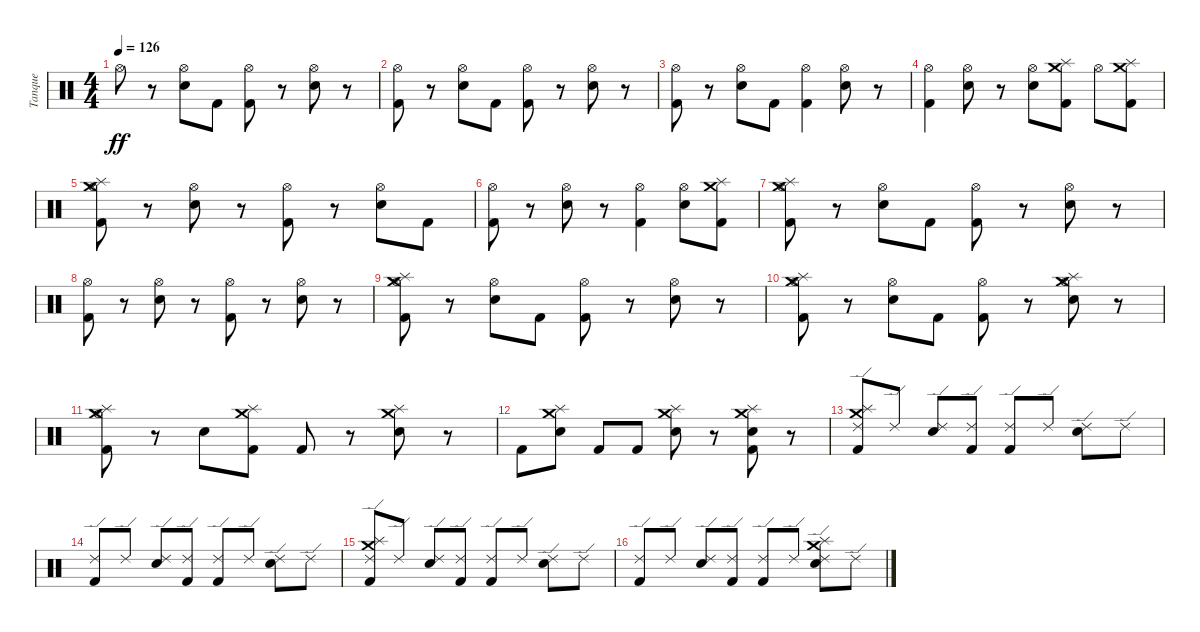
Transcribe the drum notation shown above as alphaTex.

\track ("Tanque" "Tanque") {instrument percussion}
\staff {score}
\articulation defaults
\ts (4 4)
\tempo 126
\clef neutral
\ks c "Hi-Hat (open)".8{dy ff}
r.8 ("Snare (hit) 2" "Hi-Hat (open)").8 "Kick (hit) 2".8 ("Kick (hit) 2" "Hi-Hat (open)").8 r.8 ("Snare (hit) 2" "Hi-Hat (open)").8 r.8 |
("Kick (hit) 2" "Hi-Hat (open)").8 r.8 ("Hi-Hat (open)" "Snare (hit) 2").8 "Kick (hit) 2".8 ("Hi-Hat (open)" "Kick (hit) 2").8 r.8 ("Hi-Hat (open)" "Snare (hit) 2").8 r.8 |
("Hi-Hat (open)" "Kick (hit) 2").8 r.8 ("Hi-Hat (open)" "Snare (hit) 2").8 "Kick (hit) 2".8 ("Hi-Hat (open)" "Kick (hit) 2").4 ("Hi-Hat (open)" "Snare (hit) 2").8 r.8 |
("Hi-Hat (open)" "Kick (hit) 2").4 ("Hi-Hat (open)" "Snare (hit) 2").8 r.8 ("Hi-Hat (open)" "Snare (hit) 2").8 ("Kick (hit) 2" "Crash medium (hit)" "Splash (hit)").8 "Hi-Hat (open)".8 ("Crash medium (hit)" "Splash (hit)" "Kick (hit) 2").8 |
("Hi-Hat (open)" "Kick (hit) 2" "Crash medium (hit)" "Splash (hit)").8 r.8 ("Hi-Hat (open)" "Snare (hit) 2").8 r.8 ("Hi-Hat (open)" "Kick (hit) 2").8 r.8 ("Hi-Hat (open)" "Snare (hit) 2").8 "Kick (hit) 2".8 |
("Hi-Hat (open)" "Kick (hit) 2").8 r.8 ("Hi-Hat (open)" "Snare (hit) 2").8 r.8 ("Hi-Hat (open)" "Kick (hit) 2").4 ("Hi-Hat (open)" "Snare (hit) 2").8 ("Kick (hit) 2" "Crash medium (hit)" "Splash (hit)").8 |
("Hi-Hat (open)" "Kick (hit) 2" "Crash medium (hit)" "Splash (hit)").8 r.8 ("Hi-Hat (open)" "Snare (hit) 2").8 "Kick (hit) 2".8 ("Hi-Hat (open)" "Kick (hit) 2").8 r.8 ("Hi-Hat (open)" "Snare (hit) 2").8 r.8 |
("Hi-Hat (open)" "Kick (hit) 2").8 r.8 ("Snare (hit) 2" "Hi-Hat (open)").8 r.8 ("Kick (hit) 2" "Hi-Hat (open)").8 r.8 ("Snare (hit) 2" "Hi-Hat (open)").8 r.8 |
("Kick (hit) 2" "Splash (hit)" "Crash medium (hit)" "Hi-Hat (open)").8 r.8 ("Snare (hit) 2" "Hi-Hat (open)").8 "Kick (hit) 2".8 ("Kick (hit) 2" "Hi-Hat (open)").8 r.8 ("Snare (hit) 2" "Hi-Hat (open)").8 r.8 |
("Kick (hit) 2" "Splash (hit)" "Crash medium (hit)" "Hi-Hat (open)").8 r.8 ("Snare (hit) 2" "Hi-Hat (open)").8 "Kick (hit) 2".8 ("Kick (hit) 2" "Hi-Hat (open)").8 r.8 ("Snare (hit) 2" "Splash (hit)" "Crash medium (hit)" "Hi-Hat (open)").8 r.8 |
("Kick (hit) 2" "Splash (hit)" "Crash medium (hit)" "Hi-Hat (open)").8 r.8 "Snare (hit) 2".8 ("Kick (hit) 2" "Crash medium (hit)" "Splash (hit)").8 "Kick (hit) 2".8 r.8 ("Snare (hit) 2" "Splash (hit)" "Crash medium (hit)").8 r.8 |
"Kick (hit) 2".8 ("Snare (hit) 2" "Crash medium (hit)" "Splash (hit)").8 "Kick (hit) 2".8 "Kick (hit) 2".8 ("Snare (hit) 2" "Crash medium (hit)" "Splash (hit)").8 r.8 ("Kick (hit) 2" "Snare (hit) 2" "Crash medium (hit)" "Splash (hit)").8 r.8 |
("Crash medium (hit)" "Splash (hit)" "Ride (edge) 2" "Kick (hit) 2").8 "Ride (edge) 2".8 ("Ride (edge) 2" "Snare (hit) 2").8 ("Ride (edge) 2" "Kick (hit) 2").8 ("Ride (edge) 2" "Kick (hit) 2").8 "Ride (edge) 2".8 ("Ride (edge) 2" "Snare (hit) 2").8 "Ride (edge) 2".8 |
("Ride (edge) 2" "Kick (hit) 2").8 "Ride (edge) 2".8 ("Snare (hit) 2" "Ride (edge) 2").8 ("Kick (hit) 2" "Ride (edge) 2").8 ("Kick (hit) 2" "Ride (edge) 2").8 "Ride (edge) 2".8 ("Snare (hit) 2" "Ride (edge) 2").8 "Ride (edge) 2".8 |
("Kick (hit) 2" "Splash (hit)" "Ride (edge) 2" "Crash medium (hit)").8 "Ride (edge) 2".8 ("Snare (hit) 2" "Ride (edge) 2").8 ("Kick (hit) 2" "Ride (edge) 2").8 ("Kick (hit) 2" "Ride (edge) 2").8 "Ride (edge) 2".8 ("Snare (hit) 2" "Ride (edge) 2").8 "Ride (edge) 2".8 |
("Kick (hit) 2" "Ride (edge) 2").8 "Ride (edge) 2".8 ("Snare (hit) 2" "Ride (edge) 2").8 ("Kick (hit) 2" "Ride (edge) 2").8 ("Kick (hit) 2" "Ride (edge) 2").8 "Ride (edge) 2".8 ("Snare (hit) 2" "Splash (hit)" "Ride (edge) 2" "Crash medium (hit)").8 "Ride (edge) 2".8
